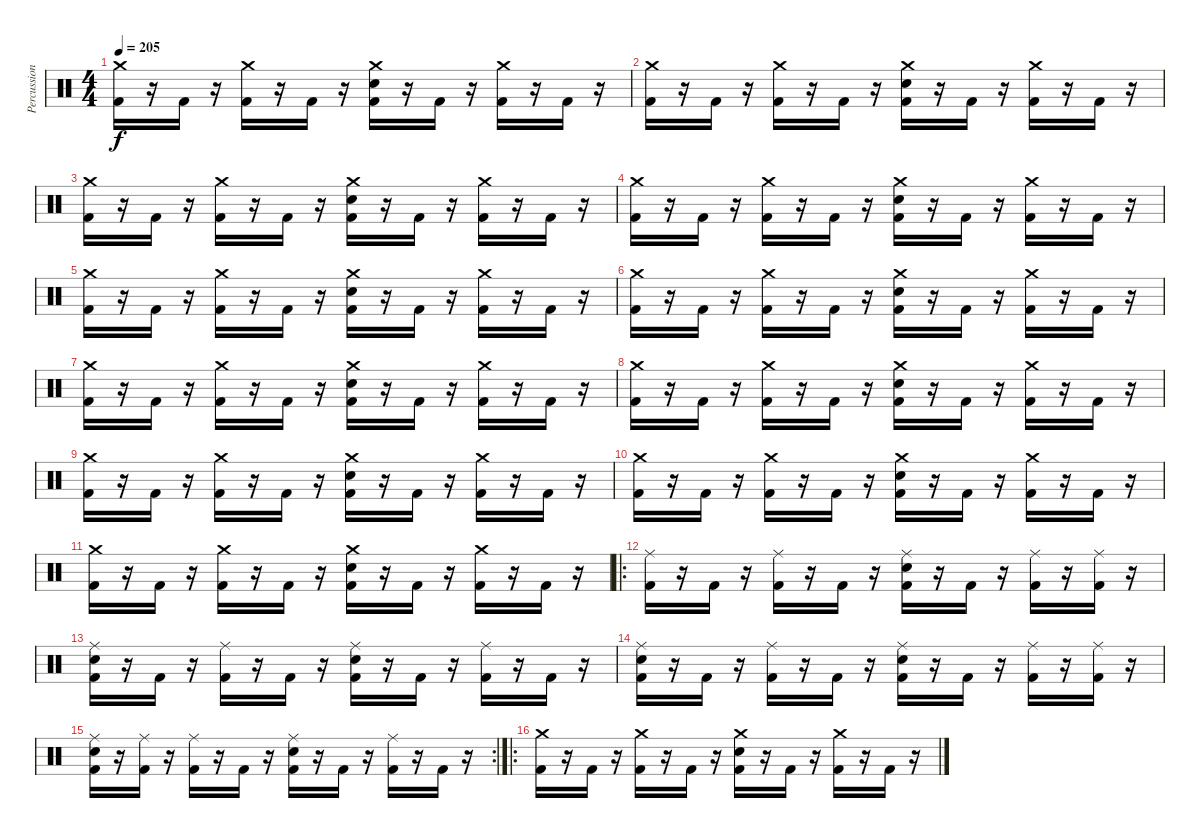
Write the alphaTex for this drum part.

\track ("Percussion" "Percussion") {instrument percussion}
\staff {score}
\articulation defaults
\ts (4 4)
\tempo 205
\clef neutral
\ks c
("Crash medium (hit)" "Kick (hit) 2").16{dy f} r.16 "Kick (hit) 2".16 r.16 ("Crash medium (hit)" "Kick (hit) 2").16 r.16 "Kick (hit) 2".16 r.16 ("Electric Snare (hit)" "Crash medium (hit)" "Kick (hit) 2").16 r.16 "Kick (hit) 2".16 r.16 ("Crash medium (hit)" "Kick (hit) 2").16 r.16 "Kick (hit) 2".16 r.16 |
("Crash medium (hit)" "Kick (hit) 2").16 r.16 "Kick (hit) 2".16 r.16 ("Crash medium (hit)" "Kick (hit) 2").16 r.16 "Kick (hit) 2".16 r.16 ("Electric Snare (hit)" "Crash medium (hit)" "Kick (hit) 2").16 r.16 "Kick (hit) 2".16 r.16 ("Crash medium (hit)" "Kick (hit) 2").16 r.16 "Kick (hit) 2".16 r.16 |
("Crash medium (hit)" "Kick (hit) 2").16 r.16 "Kick (hit) 2".16 r.16 ("Crash medium (hit)" "Kick (hit) 2").16 r.16 "Kick (hit) 2".16 r.16 ("Electric Snare (hit)" "Crash medium (hit)" "Kick (hit) 2").16 r.16 "Kick (hit) 2".16 r.16 ("Crash medium (hit)" "Kick (hit) 2").16 r.16 "Kick (hit) 2".16 r.16 |
("Crash medium (hit)" "Kick (hit) 2").16 r.16 "Kick (hit) 2".16 r.16 ("Crash medium (hit)" "Kick (hit) 2").16 r.16 "Kick (hit) 2".16 r.16 ("Electric Snare (hit)" "Crash medium (hit)" "Kick (hit) 2").16 r.16 "Kick (hit) 2".16 r.16 ("Crash medium (hit)" "Kick (hit) 2").16 r.16 "Kick (hit) 2".16 r.16 |
("Crash medium (hit)" "Kick (hit) 2").16 r.16 "Kick (hit) 2".16 r.16 ("Crash medium (hit)" "Kick (hit) 2").16 r.16 "Kick (hit) 2".16 r.16 ("Electric Snare (hit)" "Crash medium (hit)" "Kick (hit) 2").16 r.16 "Kick (hit) 2".16 r.16 ("Crash medium (hit)" "Kick (hit) 2").16 r.16 "Kick (hit) 2".16 r.16 |
("Crash medium (hit)" "Kick (hit) 2").16 r.16 "Kick (hit) 2".16 r.16 ("Crash medium (hit)" "Kick (hit) 2").16 r.16 "Kick (hit) 2".16 r.16 ("Electric Snare (hit)" "Crash medium (hit)" "Kick (hit) 2").16 r.16 "Kick (hit) 2".16 r.16 ("Crash medium (hit)" "Kick (hit) 2").16 r.16 "Kick (hit) 2".16 r.16 |
("Crash medium (hit)" "Kick (hit) 2").16 r.16 "Kick (hit) 2".16 r.16 ("Crash medium (hit)" "Kick (hit) 2").16 r.16 "Kick (hit) 2".16 r.16 ("Electric Snare (hit)" "Crash medium (hit)" "Kick (hit) 2").16 r.16 "Kick (hit) 2".16 r.16 ("Crash medium (hit)" "Kick (hit) 2").16 r.16 "Kick (hit) 2".16 r.16 |
("Crash medium (hit)" "Kick (hit) 2").16 r.16 "Kick (hit) 2".16 r.16 ("Crash medium (hit)" "Kick (hit) 2").16 r.16 "Kick (hit) 2".16 r.16 ("Electric Snare (hit)" "Crash medium (hit)" "Kick (hit) 2").16 r.16 "Kick (hit) 2".16 r.16 ("Crash medium (hit)" "Kick (hit) 2").16 r.16 "Kick (hit) 2".16 r.16 |
("Crash medium (hit)" "Kick (hit) 2").16 r.16 "Kick (hit) 2".16 r.16 ("Crash medium (hit)" "Kick (hit) 2").16 r.16 "Kick (hit) 2".16 r.16 ("Electric Snare (hit)" "Crash medium (hit)" "Kick (hit) 2").16 r.16 "Kick (hit) 2".16 r.16 ("Crash medium (hit)" "Kick (hit) 2").16 r.16 "Kick (hit) 2".16 r.16 |
("Crash medium (hit)" "Kick (hit) 2").16 r.16 "Kick (hit) 2".16 r.16 ("Crash medium (hit)" "Kick (hit) 2").16 r.16 "Kick (hit) 2".16 r.16 ("Electric Snare (hit)" "Crash medium (hit)" "Kick (hit) 2").16 r.16 "Kick (hit) 2".16 r.16 ("Crash medium (hit)" "Kick (hit) 2").16 r.16 "Kick (hit) 2".16 r.16 |
("Crash medium (hit)" "Kick (hit) 2").16 r.16 "Kick (hit) 2".16 r.16 ("Crash medium (hit)" "Kick (hit) 2").16 r.16 "Kick (hit) 2".16 r.16 ("Electric Snare (hit)" "Crash medium (hit)" "Kick (hit) 2").16 r.16 "Kick (hit) 2".16 r.16 ("Crash medium (hit)" "Kick (hit) 2").16 r.16 "Kick (hit) 2".16 r.16 |
\ro
("Ride (middle)" "Kick (hit) 2").16 r.16 "Kick (hit) 2".16 r.16 ("Ride (middle)" "Kick (hit) 2").16 r.16 "Kick (hit) 2".16 r.16 ("Electric Snare (hit)" "Ride (middle)" "Kick (hit) 2").16 r.16 "Kick (hit) 2".16 r.16 ("Ride (middle)" "Kick (hit) 2").16 r.16 ("Ride (middle)" "Kick (hit) 2").16 r.16 |
("Electric Snare (hit)" "Ride (middle)" "Kick (hit) 2").16 r.16 "Kick (hit) 2".16 r.16 ("Ride (middle)" "Kick (hit) 2").16 r.16 "Kick (hit) 2".16 r.16 ("Electric Snare (hit)" "Ride (middle)" "Kick (hit) 2").16 r.16 "Kick (hit) 2".16 r.16 ("Ride (middle)" "Kick (hit) 2").16 r.16 "Kick (hit) 2".16 r.16 |
("Electric Snare (hit)" "Ride (middle)" "Kick (hit) 2").16 r.16 "Kick (hit) 2".16 r.16 ("Ride (middle)" "Kick (hit) 2").16 r.16 "Kick (hit) 2".16 r.16 ("Electric Snare (hit)" "Ride (middle)" "Kick (hit) 2").16 r.16 "Kick (hit) 2".16 r.16 ("Ride (middle)" "Kick (hit) 2").16 r.16 ("Ride (middle)" "Kick (hit) 2").16 r.16 |
\rc 2
("Electric Snare (hit)" "Ride (middle)" "Kick (hit) 2").16 r.16 ("Ride (middle)" "Kick (hit) 2").16 r.16 ("Ride (middle)" "Kick (hit) 2").16 r.16 "Kick (hit) 2".16 r.16 ("Electric Snare (hit)" "Ride (middle)" "Kick (hit) 2").16 r.16 "Kick (hit) 2".16 r.16 ("Ride (middle)" "Kick (hit) 2").16 r.16 "Kick (hit) 2".16 r.16 |
\ro
("Crash medium (hit)" "Kick (hit) 2").16 r.16 "Kick (hit) 2".16 r.16 ("Crash medium (hit)" "Kick (hit) 2").16 r.16 "Kick (hit) 2".16 r.16 ("Electric Snare (hit)" "Crash medium (hit)" "Kick (hit) 2").16 r.16 "Kick (hit) 2".16 r.16 ("Crash medium (hit)" "Kick (hit) 2").16 r.16 "Kick (hit) 2".16 r.16
